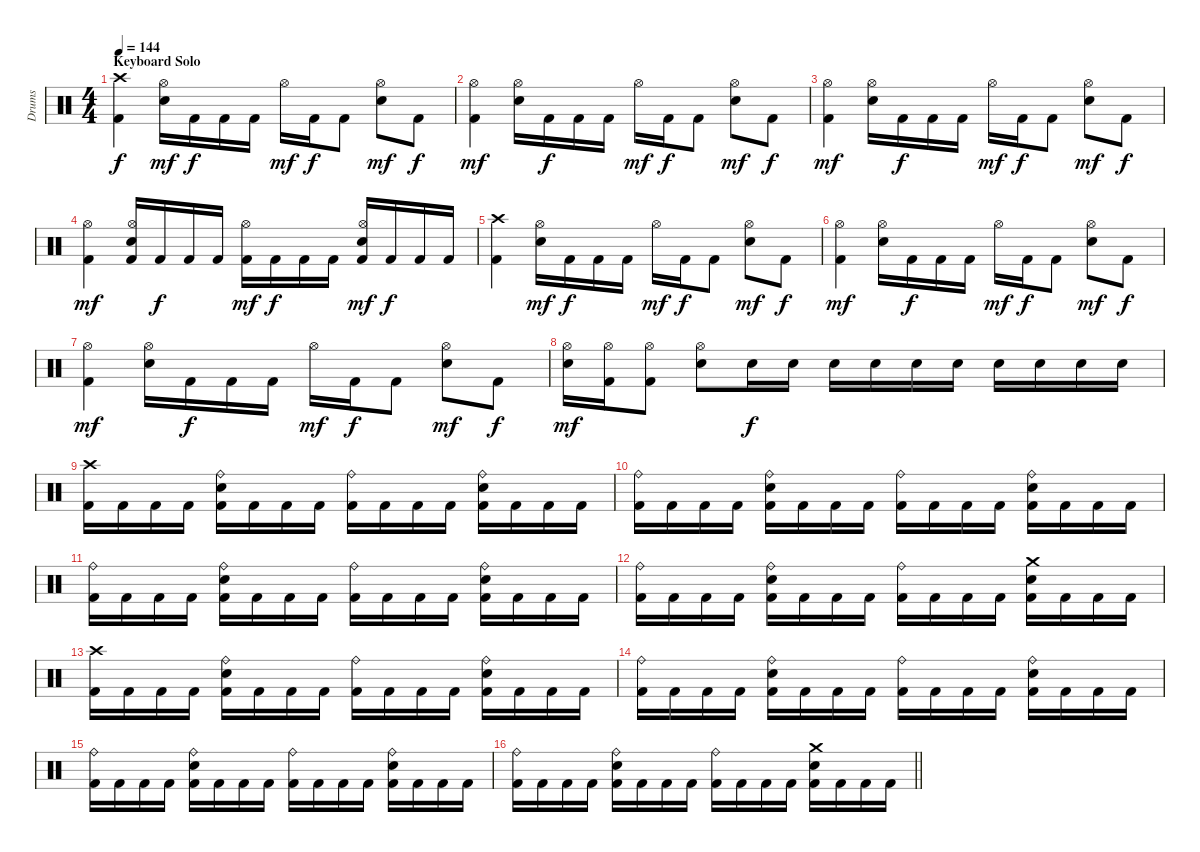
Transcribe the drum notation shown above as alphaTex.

\track ("Drums" "Drums") {instrument percussion}
\staff {score}
\articulation defaults
\ts (4 4)
\section ("" "Keyboard Solo")
\tempo 144
\clef neutral
\ks c
("Crash high (hit)" "Kick (hit) 2").4{dy f} ("Hi-Hat (open)" "Electric Snare (hit)").16{dy mf} "Kick (hit) 2".16{dy f} "Kick (hit) 2".16 "Kick (hit) 2".16 "Hi-Hat (open)".16{dy mf} "Kick (hit) 2".16{dy f} "Kick (hit) 2".8 ("Hi-Hat (open)" "Electric Snare (hit)").8{dy mf} "Kick (hit) 2".8{dy f} |
("Hi-Hat (open)" "Kick (hit) 2").4{dy mf} ("Hi-Hat (open)" "Electric Snare (hit)").16 "Kick (hit) 2".16{dy f} "Kick (hit) 2".16 "Kick (hit) 2".16 "Hi-Hat (open)".16{dy mf} "Kick (hit) 2".16{dy f} "Kick (hit) 2".8 ("Hi-Hat (open)" "Electric Snare (hit)").8{dy mf} "Kick (hit) 2".8{dy f} |
("Hi-Hat (open)" "Kick (hit) 2").4{dy mf} ("Hi-Hat (open)" "Electric Snare (hit)").16 "Kick (hit) 2".16{dy f} "Kick (hit) 2".16 "Kick (hit) 2".16 "Hi-Hat (open)".16{dy mf} "Kick (hit) 2".16{dy f} "Kick (hit) 2".8 ("Hi-Hat (open)" "Electric Snare (hit)").8{dy mf} "Kick (hit) 2".8{dy f} |
("Hi-Hat (open)" "Kick (hit) 2").4{dy mf} ("Hi-Hat (open)" "Electric Snare (hit)" "Kick (hit) 2").16 "Kick (hit) 2".16{dy f} "Kick (hit) 2".16 "Kick (hit) 2".16 ("Hi-Hat (open)" "Kick (hit) 2").16{dy mf} "Kick (hit) 2".16{dy f} "Kick (hit) 2".16 "Kick (hit) 2".16 ("Hi-Hat (open)" "Electric Snare (hit)" "Kick (hit) 2").16{dy mf} "Kick (hit) 2".16{dy f} "Kick (hit) 2".16 "Kick (hit) 2".16 |
("Crash high (hit)" "Kick (hit) 2").4 ("Hi-Hat (open)" "Electric Snare (hit)").16{dy mf} "Kick (hit) 2".16{dy f} "Kick (hit) 2".16 "Kick (hit) 2".16 "Hi-Hat (open)".16{dy mf} "Kick (hit) 2".16{dy f} "Kick (hit) 2".8 ("Hi-Hat (open)" "Electric Snare (hit)").8{dy mf} "Kick (hit) 2".8{dy f} |
("Hi-Hat (open)" "Kick (hit) 2").4{dy mf} ("Hi-Hat (open)" "Electric Snare (hit)").16 "Kick (hit) 2".16{dy f} "Kick (hit) 2".16 "Kick (hit) 2".16 "Hi-Hat (open)".16{dy mf} "Kick (hit) 2".16{dy f} "Kick (hit) 2".8 ("Hi-Hat (open)" "Electric Snare (hit)").8{dy mf} "Kick (hit) 2".8{dy f} |
("Hi-Hat (open)" "Kick (hit) 2").4{dy mf} ("Hi-Hat (open)" "Electric Snare (hit)").16 "Kick (hit) 2".16{dy f} "Kick (hit) 2".16 "Kick (hit) 2".16 "Hi-Hat (open)".16{dy mf} "Kick (hit) 2".16{dy f} "Kick (hit) 2".8 ("Hi-Hat (open)" "Electric Snare (hit)").8{dy mf} "Kick (hit) 2".8{dy f} |
("Hi-Hat (open)" "Electric Snare (hit)").16{dy mf} ("Hi-Hat (open)" "Kick (hit) 2").16 ("Hi-Hat (open)" "Kick (hit) 2").8 ("Hi-Hat (open)" "Electric Snare (hit)").8 "Electric Snare (hit)".16{dy f} "Electric Snare (hit)".16 "Electric Snare (hit)".16 "Electric Snare (hit)".16 "Electric Snare (hit)".16 "Electric Snare (hit)".16 "Electric Snare (hit)".16 "Electric Snare (hit)".16 "Electric Snare (hit)".16 "Electric Snare (hit)".16 |
("Crash high (hit)" "Kick (hit) 2").16 "Kick (hit) 2".16 "Kick (hit) 2".16 "Kick (hit) 2".16 ("Ride (bell)" "Electric Snare (hit)" "Kick (hit) 2").16 "Kick (hit) 2".16 "Kick (hit) 2".16 "Kick (hit) 2".16 ("Ride (bell)" "Kick (hit) 2").16 "Kick (hit) 2".16 "Kick (hit) 2".16 "Kick (hit) 2".16 ("Ride (bell)" "Electric Snare (hit)" "Kick (hit) 2").16 "Kick (hit) 2".16 "Kick (hit) 2".16 "Kick (hit) 2".16 |
("Ride (bell)" "Kick (hit) 2").16 "Kick (hit) 2".16 "Kick (hit) 2".16 "Kick (hit) 2".16 ("Ride (bell)" "Electric Snare (hit)" "Kick (hit) 2").16 "Kick (hit) 2".16 "Kick (hit) 2".16 "Kick (hit) 2".16 ("Ride (bell)" "Kick (hit) 2").16 "Kick (hit) 2".16 "Kick (hit) 2".16 "Kick (hit) 2".16 ("Ride (bell)" "Electric Snare (hit)" "Kick (hit) 2").16 "Kick (hit) 2".16 "Kick (hit) 2".16 "Kick (hit) 2".16 |
("Ride (bell)" "Kick (hit) 2").16 "Kick (hit) 2".16 "Kick (hit) 2".16 "Kick (hit) 2".16 ("Ride (bell)" "Electric Snare (hit)" "Kick (hit) 2").16 "Kick (hit) 2".16 "Kick (hit) 2".16 "Kick (hit) 2".16 ("Ride (bell)" "Kick (hit) 2").16 "Kick (hit) 2".16 "Kick (hit) 2".16 "Kick (hit) 2".16 ("Ride (bell)" "Electric Snare (hit)" "Kick (hit) 2").16 "Kick (hit) 2".16 "Kick (hit) 2".16 "Kick (hit) 2".16 |
("Ride (bell)" "Kick (hit) 2").16 "Kick (hit) 2".16 "Kick (hit) 2".16 "Kick (hit) 2".16 ("Ride (bell)" "Electric Snare (hit)" "Kick (hit) 2").16 "Kick (hit) 2".16 "Kick (hit) 2".16 "Kick (hit) 2".16 ("Ride (bell)" "Kick (hit) 2").16 "Kick (hit) 2".16 "Kick (hit) 2".16 "Kick (hit) 2".16 ("Crash medium (hit)" "Electric Snare (hit)" "Kick (hit) 2").16 "Kick (hit) 2".16 "Kick (hit) 2".16 "Kick (hit) 2".16 |
("Crash high (hit)" "Kick (hit) 2").16 "Kick (hit) 2".16 "Kick (hit) 2".16 "Kick (hit) 2".16 ("Ride (bell)" "Electric Snare (hit)" "Kick (hit) 2").16 "Kick (hit) 2".16 "Kick (hit) 2".16 "Kick (hit) 2".16 ("Ride (bell)" "Kick (hit) 2").16 "Kick (hit) 2".16 "Kick (hit) 2".16 "Kick (hit) 2".16 ("Ride (bell)" "Electric Snare (hit)" "Kick (hit) 2").16 "Kick (hit) 2".16 "Kick (hit) 2".16 "Kick (hit) 2".16 |
("Ride (bell)" "Kick (hit) 2").16 "Kick (hit) 2".16 "Kick (hit) 2".16 "Kick (hit) 2".16 ("Ride (bell)" "Electric Snare (hit)" "Kick (hit) 2").16 "Kick (hit) 2".16 "Kick (hit) 2".16 "Kick (hit) 2".16 ("Ride (bell)" "Kick (hit) 2").16 "Kick (hit) 2".16 "Kick (hit) 2".16 "Kick (hit) 2".16 ("Ride (bell)" "Electric Snare (hit)" "Kick (hit) 2").16 "Kick (hit) 2".16 "Kick (hit) 2".16 "Kick (hit) 2".16 |
("Ride (bell)" "Kick (hit) 2").16 "Kick (hit) 2".16 "Kick (hit) 2".16 "Kick (hit) 2".16 ("Ride (bell)" "Electric Snare (hit)" "Kick (hit) 2").16 "Kick (hit) 2".16 "Kick (hit) 2".16 "Kick (hit) 2".16 ("Ride (bell)" "Kick (hit) 2").16 "Kick (hit) 2".16 "Kick (hit) 2".16 "Kick (hit) 2".16 ("Ride (bell)" "Electric Snare (hit)" "Kick (hit) 2").16 "Kick (hit) 2".16 "Kick (hit) 2".16 "Kick (hit) 2".16 |
\barLineRight lightlight
("Ride (bell)" "Kick (hit) 2").16 "Kick (hit) 2".16 "Kick (hit) 2".16 "Kick (hit) 2".16 ("Ride (bell)" "Electric Snare (hit)" "Kick (hit) 2").16 "Kick (hit) 2".16 "Kick (hit) 2".16 "Kick (hit) 2".16 ("Ride (bell)" "Kick (hit) 2").16 "Kick (hit) 2".16 "Kick (hit) 2".16 "Kick (hit) 2".16 ("Crash medium (hit)" "Electric Snare (hit)" "Kick (hit) 2").16 "Kick (hit) 2".16 "Kick (hit) 2".16 "Kick (hit) 2".16
